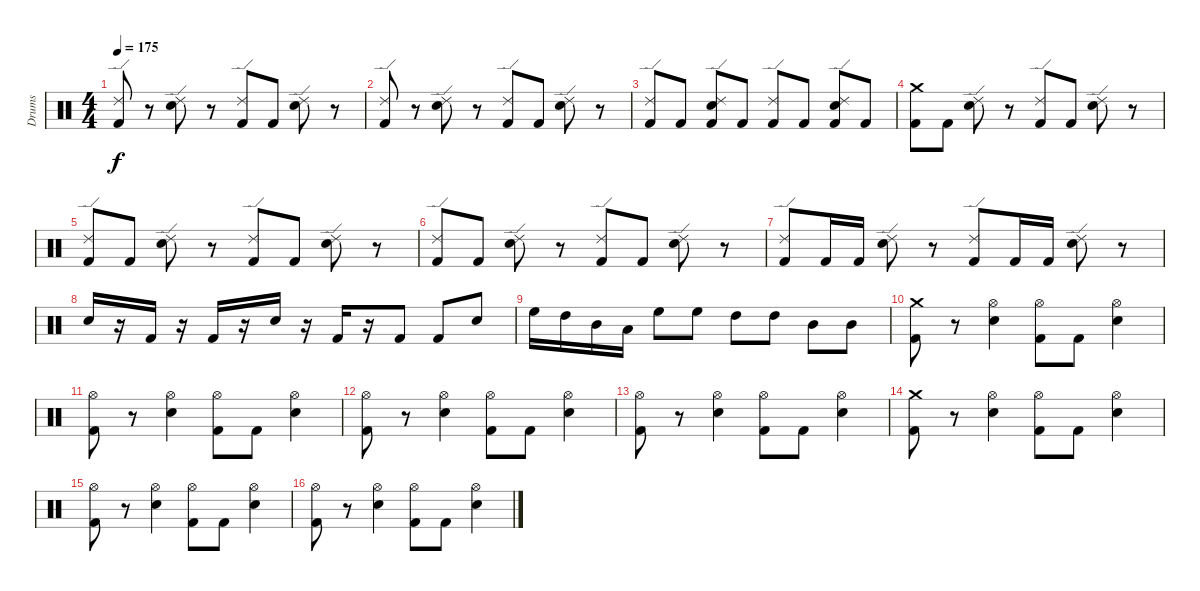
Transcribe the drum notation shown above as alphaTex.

\track ("Drums" "Drums") {instrument percussion}
\staff {score}
\articulation defaults
\ts (4 4)
\tempo 175
\clef neutral
\ks c
("Ride (edge) 2" "Kick (hit) 2").8{dy f} r.8 ("Ride (edge) 2" "Electric Snare (hit)").8 r.8 ("Ride (edge) 2" "Kick (hit) 2").8 "Kick (hit) 2".8 ("Ride (edge) 2" "Electric Snare (hit)").8 r.8 |
("Ride (edge) 2" "Kick (hit) 2").8 r.8 ("Ride (edge) 2" "Electric Snare (hit)").8 r.8 ("Ride (edge) 2" "Kick (hit) 2").8 "Kick (hit) 2".8 ("Ride (edge) 2" "Electric Snare (hit)").8 r.8 |
("Ride (edge) 2" "Kick (hit) 2").8 "Kick (hit) 2".8 ("Kick (hit) 2" "Ride (edge) 2" "Electric Snare (hit)").8 "Kick (hit) 2".8 ("Kick (hit) 2" "Ride (edge) 2").8 "Kick (hit) 2".8 ("Kick (hit) 2" "Ride (edge) 2" "Electric Snare (hit)").8 "Kick (hit) 2".8 |
("Crash medium (hit)" "Kick (hit) 2").8 "Kick (hit) 2".8 ("Ride (edge) 2" "Electric Snare (hit)").8 r.8 ("Ride (edge) 2" "Kick (hit) 2").8 "Kick (hit) 2".8 ("Ride (edge) 2" "Electric Snare (hit)").8 r.8 |
("Ride (edge) 2" "Kick (hit) 2").8 "Kick (hit) 2".8 ("Ride (edge) 2" "Electric Snare (hit)").8 r.8 ("Ride (edge) 2" "Kick (hit) 2").8 "Kick (hit) 2".8 ("Ride (edge) 2" "Electric Snare (hit)").8 r.8 |
("Ride (edge) 2" "Kick (hit) 2").8 "Kick (hit) 2".8 ("Ride (edge) 2" "Electric Snare (hit)").8 r.8 ("Ride (edge) 2" "Kick (hit) 2").8 "Kick (hit) 2".8 ("Ride (edge) 2" "Electric Snare (hit)").8 r.8 |
("Ride (edge) 2" "Kick (hit) 2").8 "Kick (hit) 2".16 "Kick (hit) 2".16 ("Ride (edge) 2" "Electric Snare (hit)").8 r.8 ("Ride (edge) 2" "Kick (hit) 2").8 "Kick (hit) 2".16 "Kick (hit) 2".16 ("Ride (edge) 2" "Electric Snare (hit)").8 r.8 |
"Electric Snare (hit)".16 r.16 "Kick (hit) 2".16 r.16 "Kick (hit) 2".16 r.16 "Electric Snare (hit)".16 r.16 "Kick (hit) 2".16 r.16 "Kick (hit) 2".8 "Kick (hit) 2".8 "Electric Snare (hit)".8 |
"High Floor Tom (hit)".16 "High Tom (hit)".16 "Mid Tom (hit)".16 "Low Tom (hit)".16 "High Floor Tom (hit)".8 "High Floor Tom (hit)".8 "High Tom (hit)".8 "High Tom (hit)".8 "Mid Tom (hit)".8 "Mid Tom (hit)".8 |
("Kick (hit) 2" "Crash medium (hit)").8 r.8 ("Hi-Hat (open)" "Electric Snare (hit)").4 ("Hi-Hat (open)" "Kick (hit) 2").8 "Kick (hit) 2".8 ("Hi-Hat (open)" "Electric Snare (hit)").4 |
("Hi-Hat (open)" "Kick (hit) 2").8 r.8 ("Hi-Hat (open)" "Electric Snare (hit)").4 ("Hi-Hat (open)" "Kick (hit) 2").8 "Kick (hit) 2".8 ("Hi-Hat (open)" "Electric Snare (hit)").4 |
("Hi-Hat (open)" "Kick (hit) 2").8 r.8 ("Hi-Hat (open)" "Electric Snare (hit)").4 ("Hi-Hat (open)" "Kick (hit) 2").8 "Kick (hit) 2".8 ("Hi-Hat (open)" "Electric Snare (hit)").4 |
("Hi-Hat (open)" "Kick (hit) 2").8 r.8 ("Hi-Hat (open)" "Electric Snare (hit)").4 ("Hi-Hat (open)" "Kick (hit) 2").8 "Kick (hit) 2".8 ("Hi-Hat (open)" "Electric Snare (hit)").4 |
("Kick (hit) 2" "Crash medium (hit)").8 r.8 ("Hi-Hat (open)" "Electric Snare (hit)").4 ("Hi-Hat (open)" "Kick (hit) 2").8 "Kick (hit) 2".8 ("Hi-Hat (open)" "Electric Snare (hit)").4 |
("Hi-Hat (open)" "Kick (hit) 2").8 r.8 ("Hi-Hat (open)" "Electric Snare (hit)").4 ("Hi-Hat (open)" "Kick (hit) 2").8 "Kick (hit) 2".8 ("Hi-Hat (open)" "Electric Snare (hit)").4 |
("Hi-Hat (open)" "Kick (hit) 2").8 r.8 ("Hi-Hat (open)" "Electric Snare (hit)").4 ("Hi-Hat (open)" "Kick (hit) 2").8 "Kick (hit) 2".8 ("Electric Snare (hit)" "Hi-Hat (open)").4
